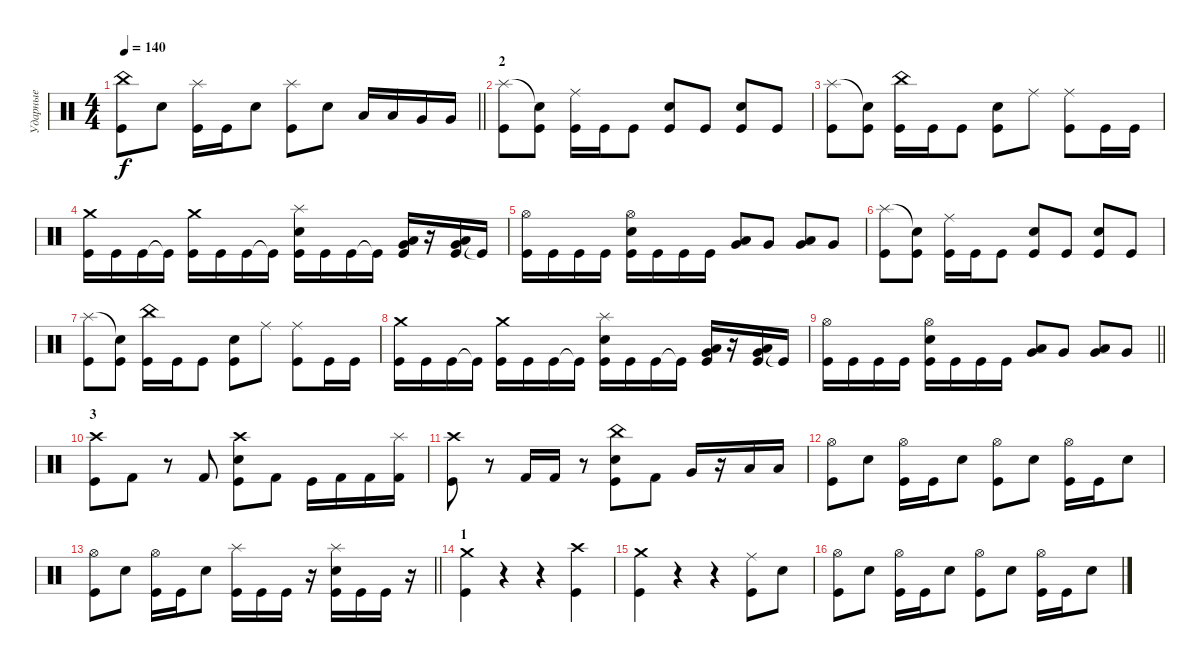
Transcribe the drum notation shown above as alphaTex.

\track ("Ударные" "Ударные") {instrument percussion}
\staff {score}
\articulation defaults
\ts (4 4)
\tempo 140
\clef neutral
\barLineRight lightlight
\ks c
("China (hit)" "Kick (hit)").8{dy f} "Electric Snare (hit)".8 ("Splash (hit)" "Kick (hit)").16 "Kick (hit)".16 "Electric Snare (hit)".8 ("Splash (hit)" "Kick (hit)").8 "Electric Snare (hit)".8 "Low Tom (hit)".16 "Low Tom (hit)".16 "Very Low Tom (hit)".16 "Very Low Tom (hit)".16 |
\section ("" "2")
("Splash (hit)" "Kick (hit)").8 ("Snare (hit)"{t} "Kick (hit)").8 ("Ride (middle)" "Kick (hit)").16 "Kick (hit)".16 "Kick (hit)".8 ("Electric Snare (hit)" "Kick (hit)").8 "Kick (hit)".8 ("Electric Snare (hit)" "Kick (hit)").8 "Kick (hit)".8 |
("Splash (hit)" "Kick (hit)").8 ("Snare (hit)"{t} "Kick (hit)").8 ("China (hit)" "Kick (hit)").16 "Kick (hit)".16 "Kick (hit)".8 ("Electric Snare (hit)" "Kick (hit)").8 "Ride (middle)".8 ("Ride (middle)" "Kick (hit)").8 "Kick (hit)".16 "Kick (hit)".16 |
("Crash medium (hit)" "Kick (hit)").16 "Kick (hit)".16 "Kick (hit)".16 "Kick (hit)"{t}.16 ("Crash medium (hit)" "Kick (hit)").16 "Kick (hit)".16 "Kick (hit)".16 "Kick (hit)"{t}.16 ("Splash (hit)" "Electric Snare (hit)" "Kick (hit)").16 "Kick (hit)".16 "Kick (hit)".16 "Kick (hit)"{t}.16 ("Low Tom (hit)" "Very Low Tom (hit)" "Kick (hit)").16 r.16 ("Low Tom (hit)" "Very Low Tom (hit)" "Kick (hit)").16 "Kick (hit)"{t}.16 |
("Hi-Hat (open)" "Kick (hit)").16 "Kick (hit)".16 "Kick (hit)".16 "Kick (hit)".16 ("Hi-Hat (open)" "Electric Snare (hit)" "Kick (hit)").16 "Kick (hit)".16 "Kick (hit)".16 "Kick (hit)".16 ("Very Low Tom (hit)" "Low Floor Tom (hit)").8 "Very Low Tom (hit)".8 ("Very Low Tom (hit)" "Low Floor Tom (hit)").8 "Very Low Tom (hit)".8 |
("Splash (hit)" "Kick (hit)").8 ("Snare (hit)"{t} "Kick (hit)").8 ("Ride (middle)" "Kick (hit)").16 "Kick (hit)".16 "Kick (hit)".8 ("Electric Snare (hit)" "Kick (hit)").8 "Kick (hit)".8 ("Electric Snare (hit)" "Kick (hit)").8 "Kick (hit)".8 |
("Splash (hit)" "Kick (hit)").8 ("Snare (hit)"{t} "Kick (hit)").8 ("China (hit)" "Kick (hit)").16 "Kick (hit)".16 "Kick (hit)".8 ("Electric Snare (hit)" "Kick (hit)").8 "Ride (middle)".8 ("Ride (middle)" "Kick (hit)").8 "Kick (hit)".16 "Kick (hit)".16 |
("Crash medium (hit)" "Kick (hit)").16 "Kick (hit)".16 "Kick (hit)".16 "Kick (hit)"{t}.16 ("Crash medium (hit)" "Kick (hit)").16 "Kick (hit)".16 "Kick (hit)".16 "Kick (hit)"{t}.16 ("Splash (hit)" "Electric Snare (hit)" "Kick (hit)").16 "Kick (hit)".16 "Kick (hit)".16 "Kick (hit)"{t}.16 ("Low Tom (hit)" "Very Low Tom (hit)" "Kick (hit)").16 r.16 ("Low Tom (hit)" "Very Low Tom (hit)" "Kick (hit)").16 "Kick (hit)"{t}.16 |
\barLineRight lightlight
("Hi-Hat (open)" "Kick (hit)").16 "Kick (hit)".16 "Kick (hit)".16 "Kick (hit)".16 ("Hi-Hat (open)" "Electric Snare (hit)" "Kick (hit)").16 "Kick (hit)".16 "Kick (hit)".16 "Kick (hit)".16 ("Very Low Tom (hit)" "Low Floor Tom (hit)").8 "Very Low Tom (hit)".8 ("Very Low Tom (hit)" "Low Floor Tom (hit)").8 "Very Low Tom (hit)".8 |
\section ("" "3")
("Crash high (hit)" "Kick (hit)").8 "Kick (hit) 2".8 r.8 "Kick (hit) 2".8 ("Crash high (hit)" "Electric Snare (hit)" "Kick (hit)").8 "Kick (hit) 2".8 "Kick (hit)".16 "Kick (hit) 2".16 "Kick (hit) 2".16 ("Splash (hit)" "Kick (hit) 2").16 |
("Crash high (hit)" "Kick (hit)").8 r.8 "Kick (hit) 2".16 "Kick (hit) 2".16 r.8 ("China (hit)" "Electric Snare (hit)" "Kick (hit)").8 "Kick (hit) 2".8 "Very Low Tom (hit)".16 r.16 "Low Tom (hit)".16 "Low Tom (hit)".16 |
("Hi-Hat (open)" "Kick (hit)").8 "Electric Snare (hit)".8 ("Hi-Hat (open)" "Kick (hit)").16 "Kick (hit)".16 "Electric Snare (hit)".8 ("Hi-Hat (open)" "Kick (hit)").8 "Electric Snare (hit)".8 ("Hi-Hat (open)" "Kick (hit)").16 "Kick (hit)".16 "Electric Snare (hit)".8 |
\barLineRight lightlight
("Hi-Hat (open)" "Kick (hit)").8 "Electric Snare (hit)".8 ("Hi-Hat (open)" "Kick (hit)").16 "Kick (hit)".16 "Electric Snare (hit)".8 ("Splash (hit)" "Kick (hit)").16 "Kick (hit)".16 "Kick (hit)".16 r.16 ("Splash (hit)" "Electric Snare (hit)" "Kick (hit)").16 "Kick (hit)".16 "Kick (hit)".16 r.16 |
\section ("" "1")
("Crash medium (hit)" "Kick (hit)").4 r.4 r.4 ("Crash high (hit)" "Kick (hit)").4 |
("Crash medium (hit)" "Kick (hit)").4 r.4 r.4 ("Ride (middle)" "Kick (hit)").8 "Electric Snare (hit)".8 |
("Hi-Hat (open)" "Kick (hit)").8 "Electric Snare (hit)".8 ("Hi-Hat (open)" "Kick (hit)").16 "Kick (hit)".16 "Electric Snare (hit)".8 ("Hi-Hat (open)" "Kick (hit)").8 "Electric Snare (hit)".8 ("Hi-Hat (open)" "Kick (hit)").16 "Kick (hit)".16 "Electric Snare (hit)".8
